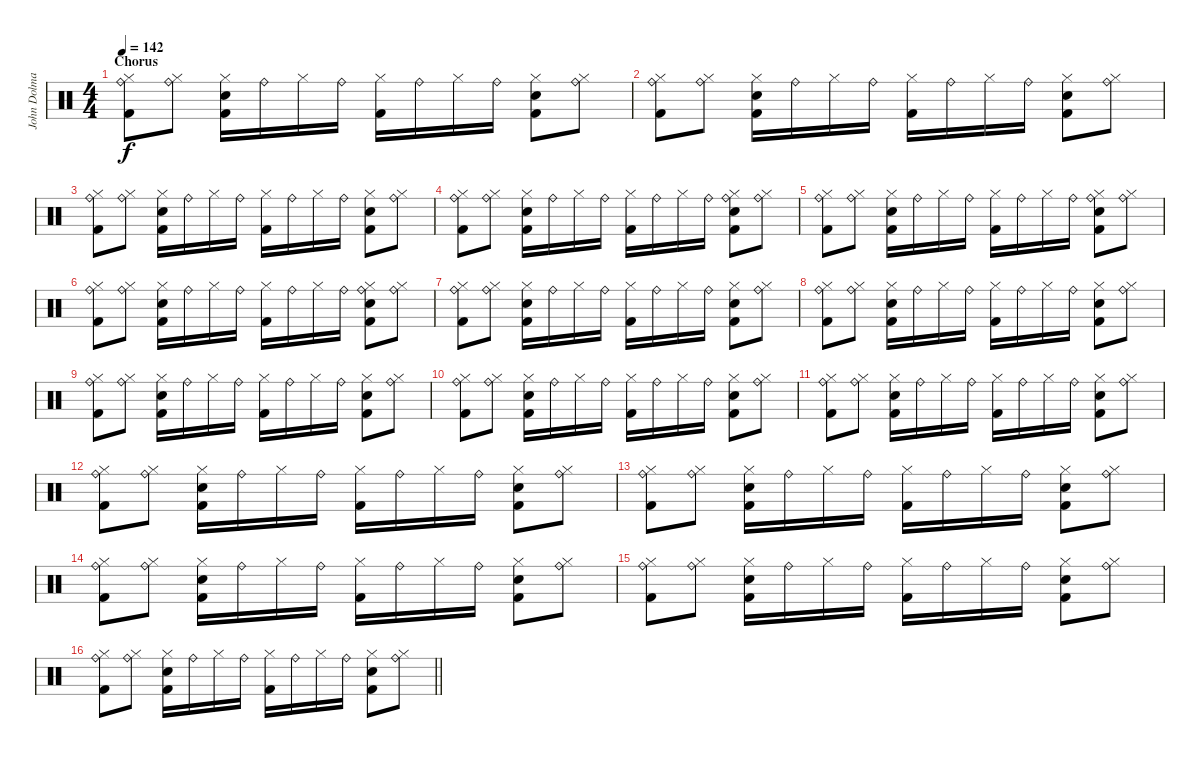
\track ("John Dolmayan" "John Dolma") {instrument percussion}
\staff {score}
\articulation defaults
\ts (4 4)
\section ("" "Chorus")
\tempo 142
\clef neutral
\ks c
("Ride (bell)" "Hi-Hat (closed)" "Kick (hit) 2").8{dy f} ("Ride (bell)" "Hi-Hat (closed)").8 ("Hi-Hat (closed)" "Electric Snare (hit)" "Kick (hit) 2").16 "Ride (bell)".16 "Hi-Hat (closed)".16 "Ride (bell)".16 ("Hi-Hat (closed)" "Kick (hit) 2").16 "Ride (bell)".16 "Hi-Hat (closed)".16 "Ride (bell)".16 ("Hi-Hat (closed)" "Electric Snare (hit)" "Kick (hit) 2").8 ("Ride (bell)" "Hi-Hat (closed)").8 |
("Ride (bell)" "Hi-Hat (closed)" "Kick (hit) 2").8 ("Ride (bell)" "Hi-Hat (closed)").8 ("Hi-Hat (closed)" "Electric Snare (hit)" "Kick (hit) 2").16 "Ride (bell)".16 "Hi-Hat (closed)".16 "Ride (bell)".16 ("Hi-Hat (closed)" "Kick (hit) 2").16 "Ride (bell)".16 "Hi-Hat (closed)".16 "Ride (bell)".16 ("Hi-Hat (closed)" "Electric Snare (hit)" "Kick (hit) 2").8 ("Ride (bell)" "Hi-Hat (closed)").8 |
("Ride (bell)" "Hi-Hat (closed)" "Kick (hit) 2").8 ("Ride (bell)" "Hi-Hat (closed)").8 ("Hi-Hat (closed)" "Electric Snare (hit)" "Kick (hit) 2").16 "Ride (bell)".16 "Hi-Hat (closed)".16 "Ride (bell)".16 ("Hi-Hat (closed)" "Kick (hit) 2").16 "Ride (bell)".16 "Hi-Hat (closed)".16 "Ride (bell)".16 ("Hi-Hat (closed)" "Electric Snare (hit)" "Kick (hit) 2").8 ("Ride (bell)" "Hi-Hat (closed)").8 |
("Ride (bell)" "Hi-Hat (closed)" "Kick (hit) 2").8 ("Ride (bell)" "Hi-Hat (closed)").8 ("Hi-Hat (closed)" "Electric Snare (hit)" "Kick (hit) 2").16 "Ride (bell)".16 "Hi-Hat (closed)".16 "Ride (bell)".16 ("Hi-Hat (closed)" "Kick (hit) 2").16 "Ride (bell)".16 "Hi-Hat (closed)".16 "Ride (bell)".16 ("Ride (bell)" "Hi-Hat (closed)" "Electric Snare (hit)" "Kick (hit) 2").8 ("Ride (bell)" "Hi-Hat (closed)").8 |
("Ride (bell)" "Hi-Hat (closed)" "Kick (hit) 2").8 ("Ride (bell)" "Hi-Hat (closed)").8 ("Hi-Hat (closed)" "Electric Snare (hit)" "Kick (hit) 2").16 "Ride (bell)".16 "Hi-Hat (closed)".16 "Ride (bell)".16 ("Hi-Hat (closed)" "Kick (hit) 2").16 "Ride (bell)".16 "Hi-Hat (closed)".16 "Ride (bell)".16 ("Ride (bell)" "Hi-Hat (closed)" "Electric Snare (hit)" "Kick (hit) 2").8 ("Ride (bell)" "Hi-Hat (closed)").8 |
("Ride (bell)" "Hi-Hat (closed)" "Kick (hit) 2").8 ("Ride (bell)" "Hi-Hat (closed)").8 ("Hi-Hat (closed)" "Electric Snare (hit)" "Kick (hit) 2").16 "Ride (bell)".16 "Hi-Hat (closed)".16 "Ride (bell)".16 ("Hi-Hat (closed)" "Kick (hit) 2").16 "Ride (bell)".16 "Hi-Hat (closed)".16 "Ride (bell)".16 ("Ride (bell)" "Hi-Hat (closed)" "Electric Snare (hit)" "Kick (hit) 2").8 ("Ride (bell)" "Hi-Hat (closed)").8 |
("Ride (bell)" "Hi-Hat (closed)" "Kick (hit) 2").8 ("Ride (bell)" "Hi-Hat (closed)").8 ("Hi-Hat (closed)" "Electric Snare (hit)" "Kick (hit) 2").16 "Ride (bell)".16 "Hi-Hat (closed)".16 "Ride (bell)".16 ("Hi-Hat (closed)" "Kick (hit) 2").16 "Ride (bell)".16 "Hi-Hat (closed)".16 "Ride (bell)".16 ("Hi-Hat (closed)" "Electric Snare (hit)" "Kick (hit) 2").8 ("Ride (bell)" "Hi-Hat (closed)").8 |
("Ride (bell)" "Hi-Hat (closed)" "Kick (hit) 2").8 ("Ride (bell)" "Hi-Hat (closed)").8 ("Hi-Hat (closed)" "Electric Snare (hit)" "Kick (hit) 2").16 "Ride (bell)".16 "Hi-Hat (closed)".16 "Ride (bell)".16 ("Hi-Hat (closed)" "Kick (hit) 2").16 "Ride (bell)".16 "Hi-Hat (closed)".16 "Ride (bell)".16 ("Hi-Hat (closed)" "Electric Snare (hit)" "Kick (hit) 2").8 ("Ride (bell)" "Hi-Hat (closed)").8 |
("Ride (bell)" "Hi-Hat (closed)" "Kick (hit) 2").8 ("Ride (bell)" "Hi-Hat (closed)").8 ("Hi-Hat (closed)" "Electric Snare (hit)" "Kick (hit) 2").16 "Ride (bell)".16 "Hi-Hat (closed)".16 "Ride (bell)".16 ("Hi-Hat (closed)" "Kick (hit) 2").16 "Ride (bell)".16 "Hi-Hat (closed)".16 "Ride (bell)".16 ("Hi-Hat (closed)" "Electric Snare (hit)" "Kick (hit) 2").8 ("Ride (bell)" "Hi-Hat (closed)").8 |
("Ride (bell)" "Hi-Hat (closed)" "Kick (hit) 2").8 ("Ride (bell)" "Hi-Hat (closed)").8 ("Hi-Hat (closed)" "Electric Snare (hit)" "Kick (hit) 2").16 "Ride (bell)".16 "Hi-Hat (closed)".16 "Ride (bell)".16 ("Hi-Hat (closed)" "Kick (hit) 2").16 "Ride (bell)".16 "Hi-Hat (closed)".16 "Ride (bell)".16 ("Hi-Hat (closed)" "Electric Snare (hit)" "Kick (hit) 2").8 ("Ride (bell)" "Hi-Hat (closed)").8 |
("Ride (bell)" "Hi-Hat (closed)" "Kick (hit) 2").8 ("Ride (bell)" "Hi-Hat (closed)").8 ("Hi-Hat (closed)" "Electric Snare (hit)" "Kick (hit) 2").16 "Ride (bell)".16 "Hi-Hat (closed)".16 "Ride (bell)".16 ("Hi-Hat (closed)" "Kick (hit) 2").16 "Ride (bell)".16 "Hi-Hat (closed)".16 "Ride (bell)".16 ("Hi-Hat (closed)" "Electric Snare (hit)" "Kick (hit) 2").8 ("Ride (bell)" "Hi-Hat (closed)").8 |
("Ride (bell)" "Hi-Hat (closed)" "Kick (hit) 2").8 ("Ride (bell)" "Hi-Hat (closed)").8 ("Hi-Hat (closed)" "Electric Snare (hit)" "Kick (hit) 2").16 "Ride (bell)".16 "Hi-Hat (closed)".16 "Ride (bell)".16 ("Hi-Hat (closed)" "Kick (hit) 2").16 "Ride (bell)".16 "Hi-Hat (closed)".16 "Ride (bell)".16 ("Hi-Hat (closed)" "Electric Snare (hit)" "Kick (hit) 2").8 ("Ride (bell)" "Hi-Hat (closed)").8 |
("Ride (bell)" "Hi-Hat (closed)" "Kick (hit) 2").8 ("Ride (bell)" "Hi-Hat (closed)").8 ("Hi-Hat (closed)" "Electric Snare (hit)" "Kick (hit) 2").16 "Ride (bell)".16 "Hi-Hat (closed)".16 "Ride (bell)".16 ("Hi-Hat (closed)" "Kick (hit) 2").16 "Ride (bell)".16 "Hi-Hat (closed)".16 "Ride (bell)".16 ("Hi-Hat (closed)" "Electric Snare (hit)" "Kick (hit) 2").8 ("Ride (bell)" "Hi-Hat (closed)").8 |
("Ride (bell)" "Hi-Hat (closed)" "Kick (hit) 2").8 ("Ride (bell)" "Hi-Hat (closed)").8 ("Hi-Hat (closed)" "Electric Snare (hit)" "Kick (hit) 2").16 "Ride (bell)".16 "Hi-Hat (closed)".16 "Ride (bell)".16 ("Hi-Hat (closed)" "Kick (hit) 2").16 "Ride (bell)".16 "Hi-Hat (closed)".16 "Ride (bell)".16 ("Hi-Hat (closed)" "Electric Snare (hit)" "Kick (hit) 2").8 ("Ride (bell)" "Hi-Hat (closed)").8 |
("Ride (bell)" "Hi-Hat (closed)" "Kick (hit) 2").8 ("Ride (bell)" "Hi-Hat (closed)").8 ("Hi-Hat (closed)" "Electric Snare (hit)" "Kick (hit) 2").16 "Ride (bell)".16 "Hi-Hat (closed)".16 "Ride (bell)".16 ("Hi-Hat (closed)" "Kick (hit) 2").16 "Ride (bell)".16 "Hi-Hat (closed)".16 "Ride (bell)".16 ("Hi-Hat (closed)" "Electric Snare (hit)" "Kick (hit) 2").8 ("Ride (bell)" "Hi-Hat (closed)").8 |
\barLineRight lightlight
("Ride (bell)" "Hi-Hat (closed)" "Kick (hit) 2").8 ("Ride (bell)" "Hi-Hat (closed)").8 ("Hi-Hat (closed)" "Electric Snare (hit)" "Kick (hit) 2").16 "Ride (bell)".16 "Hi-Hat (closed)".16 "Ride (bell)".16 ("Hi-Hat (closed)" "Kick (hit) 2").16 "Ride (bell)".16 "Hi-Hat (closed)".16 "Ride (bell)".16 ("Hi-Hat (closed)" "Electric Snare (hit)" "Kick (hit) 2").8 ("Ride (bell)" "Hi-Hat (closed)").8
